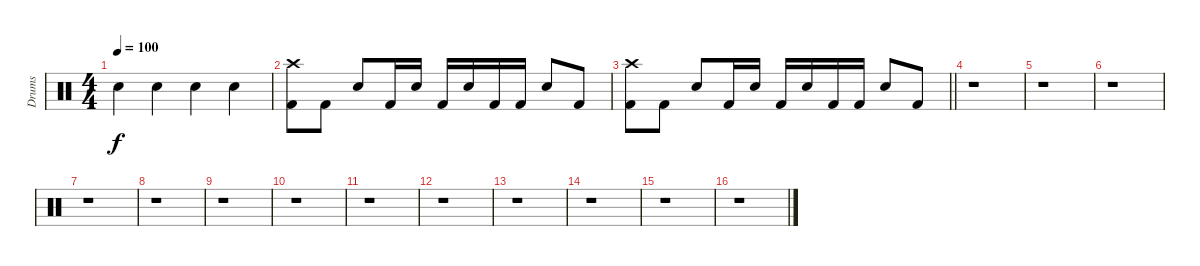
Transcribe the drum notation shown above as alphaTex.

\track ("Drums" "Drums") {instrument percussion}
\staff {score}
\articulation defaults
\ts (4 4)
\tempo 100
\clef neutral
\ks c "Snare (hit) 2".4{dy f} "Snare (hit) 2".4 "Snare (hit) 2".4 "Snare (hit) 2".4
|
("Kick (hit) 2" "Crash high (hit)").8 "Kick (hit) 2".8 "Snare (hit) 2".8 "Kick (hit) 2".16 "Snare (hit) 2".16 "Kick (hit) 2".16 "Snare (hit) 2".16 "Kick (hit) 2".16 "Kick (hit) 2".16 "Snare (hit) 2".8 "Kick (hit) 2".8 |
\barLineRight lightlight
("Kick (hit) 2" "Crash high (hit)").8 "Kick (hit) 2".8 "Snare (hit) 2".8 "Kick (hit) 2".16 "Snare (hit) 2".16 "Kick (hit) 2".16 "Snare (hit) 2".16 "Kick (hit) 2".16 "Kick (hit) 2".16 "Snare (hit) 2".8 "Kick (hit) 2".8 |
r.1 |
r.1 |
r.1 |
r.1 |
r.1 |
r.1 |
r.1 |
r.1 |
r.1 |
r.1 |
r.1 |
r.1 |
r.1
